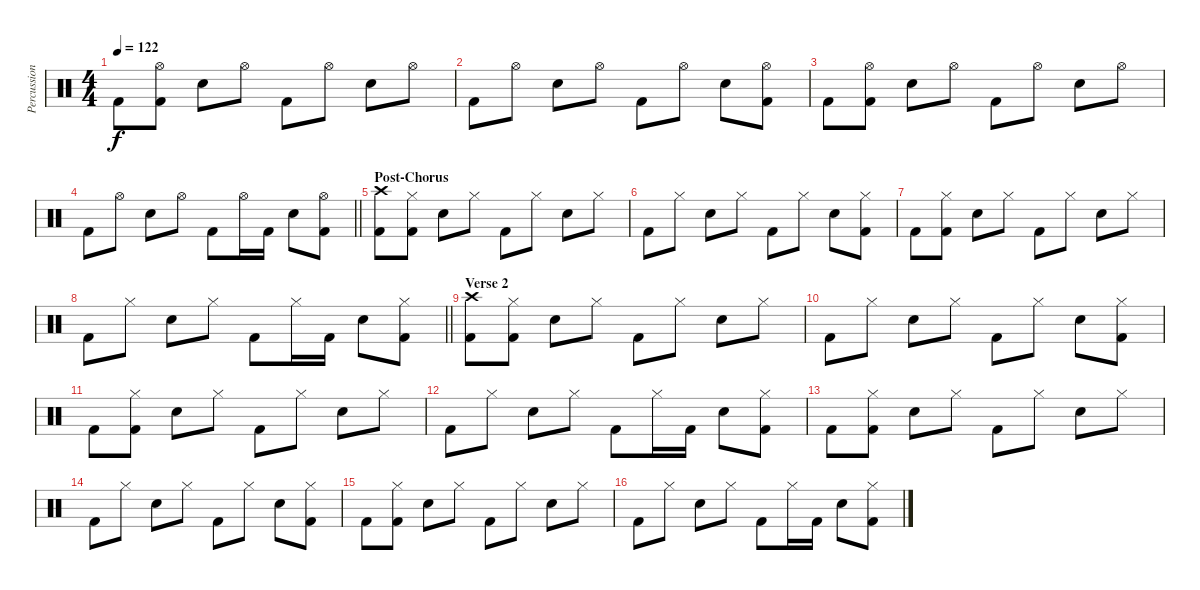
\track ("Percussion" "Percussion") {instrument percussion}
\staff {score}
\articulation defaults
\ts (4 4)
\tempo 122
\clef neutral
\ks c "Kick (hit) 2".8{dy f}
("Hi-Hat (open)" "Kick (hit) 2").8 "Electric Snare (hit)".8 "Hi-Hat (open)".8 "Kick (hit) 2".8 "Hi-Hat (open)".8 "Electric Snare (hit)".8 "Hi-Hat (open)".8 |
"Kick (hit) 2".8 "Hi-Hat (open)".8 "Electric Snare (hit)".8 "Hi-Hat (open)".8 "Kick (hit) 2".8 "Hi-Hat (open)".8 "Electric Snare (hit)".8 ("Hi-Hat (open)" "Kick (hit) 2").8 |
"Kick (hit) 2".8 ("Hi-Hat (open)" "Kick (hit) 2").8 "Electric Snare (hit)".8 "Hi-Hat (open)".8 "Kick (hit) 2".8 "Hi-Hat (open)".8 "Electric Snare (hit)".8 "Hi-Hat (open)".8 |
\barLineRight lightlight "Kick (hit) 2".8 "Hi-Hat (open)".8 "Electric Snare (hit)".8 "Hi-Hat (open)".8 "Kick (hit) 2".8 "Hi-Hat (open)".16 "Kick (hit) 2".16 "Electric Snare (hit)".8
("Hi-Hat (open)" "Kick (hit) 2").8 |
\section ("" "Post-Chorus")
("Crash high (hit)" "Kick (hit) 2").8 ("Hi-Hat (closed)" "Kick (hit) 2").8 "Electric Snare (hit)".8 "Hi-Hat (closed)".8 "Kick (hit) 2".8 "Hi-Hat (closed)".8 "Electric Snare (hit)".8 "Hi-Hat (closed)".8 |
"Kick (hit) 2".8 "Hi-Hat (closed)".8 "Electric Snare (hit)".8 "Hi-Hat (closed)".8 "Kick (hit) 2".8 "Hi-Hat (closed)".8 "Electric Snare (hit)".8 ("Hi-Hat (closed)" "Kick (hit) 2").8 |
"Kick (hit) 2".8 ("Hi-Hat (closed)" "Kick (hit) 2").8 "Electric Snare (hit)".8 "Hi-Hat (closed)".8 "Kick (hit) 2".8 "Hi-Hat (closed)".8 "Electric Snare (hit)".8 "Hi-Hat (closed)".8 |
\barLineRight lightlight "Kick (hit) 2".8 "Hi-Hat (closed)".8 "Electric Snare (hit)".8 "Hi-Hat (closed)".8 "Kick (hit) 2".8 "Hi-Hat (closed)".16 "Kick (hit) 2".16 "Electric Snare (hit)".8
("Hi-Hat (closed)" "Kick (hit) 2").8 |
\section ("" "Verse 2")
("Crash high (hit)" "Kick (hit) 2").8 ("Hi-Hat (closed)" "Kick (hit) 2").8 "Electric Snare (hit)".8 "Hi-Hat (closed)".8 "Kick (hit) 2".8 "Hi-Hat (closed)".8 "Electric Snare (hit)".8 "Hi-Hat (closed)".8 |
"Kick (hit) 2".8 "Hi-Hat (closed)".8 "Electric Snare (hit)".8 "Hi-Hat (closed)".8 "Kick (hit) 2".8 "Hi-Hat (closed)".8 "Electric Snare (hit)".8 ("Hi-Hat (closed)" "Kick (hit) 2").8 |
"Kick (hit) 2".8 ("Hi-Hat (closed)" "Kick (hit) 2").8 "Electric Snare (hit)".8 "Hi-Hat (closed)".8 "Kick (hit) 2".8 "Hi-Hat (closed)".8 "Electric Snare (hit)".8 "Hi-Hat (closed)".8 |
"Kick (hit) 2".8 "Hi-Hat (closed)".8 "Electric Snare (hit)".8 "Hi-Hat (closed)".8 "Kick (hit) 2".8 "Hi-Hat (closed)".16 "Kick (hit) 2".16 "Electric Snare (hit)".8 ("Hi-Hat (closed)" "Kick (hit) 2").8 |
"Kick (hit) 2".8 ("Hi-Hat (closed)" "Kick (hit) 2").8 "Electric Snare (hit)".8 "Hi-Hat (closed)".8 "Kick (hit) 2".8 "Hi-Hat (closed)".8 "Electric Snare (hit)".8 "Hi-Hat (closed)".8 |
"Kick (hit) 2".8 "Hi-Hat (closed)".8 "Electric Snare (hit)".8 "Hi-Hat (closed)".8 "Kick (hit) 2".8 "Hi-Hat (closed)".8 "Electric Snare (hit)".8 ("Hi-Hat (closed)" "Kick (hit) 2").8 |
"Kick (hit) 2".8 ("Hi-Hat (closed)" "Kick (hit) 2").8 "Electric Snare (hit)".8 "Hi-Hat (closed)".8 "Kick (hit) 2".8 "Hi-Hat (closed)".8 "Electric Snare (hit)".8 "Hi-Hat (closed)".8 |
"Kick (hit) 2".8 "Hi-Hat (closed)".8 "Electric Snare (hit)".8 "Hi-Hat (closed)".8 "Kick (hit) 2".8 "Hi-Hat (closed)".16 "Kick (hit) 2".16 "Electric Snare (hit)".8 ("Hi-Hat (closed)" "Kick (hit) 2").8
